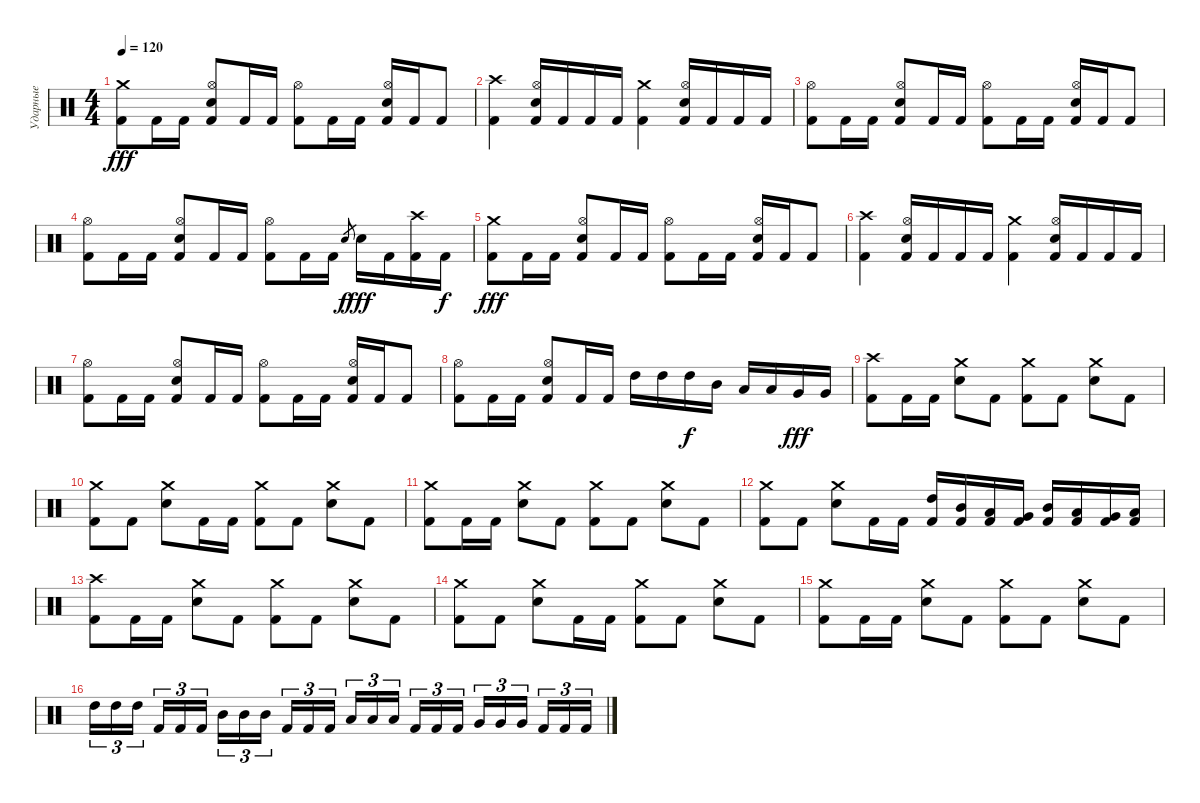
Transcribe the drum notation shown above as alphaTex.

\track ("Ударные" "Ударные") {instrument percussion}
\staff {score}
\articulation defaults
\ts (4 4)
\tempo 120
\clef neutral
\ks c
("Crash medium (hit)" "Kick (hit) 2").8{dy fff} "Kick (hit) 2".16 "Kick (hit) 2".16 ("Hi-Hat (open)" "Electric Snare (hit)" "Kick (hit) 2").8 "Kick (hit) 2".16 "Kick (hit) 2".16 ("Hi-Hat (open)" "Kick (hit) 2").8 "Kick (hit) 2".16 "Kick (hit) 2".16 ("Hi-Hat (open)" "Electric Snare (hit)" "Kick (hit) 2").16 "Kick (hit) 2".16 "Kick (hit) 2".8 |
("Crash high (hit)" "Kick (hit) 2").4 ("Hi-Hat (open)" "Electric Snare (hit)" "Kick (hit) 2").16 "Kick (hit) 2".16 "Kick (hit) 2".16 "Kick (hit) 2".16 ("Crash medium (hit)" "Kick (hit) 2").4 ("Hi-Hat (open)" "Electric Snare (hit)" "Kick (hit) 2").16 "Kick (hit) 2".16 "Kick (hit) 2".16 "Kick (hit) 2".16 |
("Hi-Hat (open)" "Kick (hit) 2").8 "Kick (hit) 2".16 "Kick (hit) 2".16 ("Hi-Hat (open)" "Electric Snare (hit)" "Kick (hit) 2").8 "Kick (hit) 2".16 "Kick (hit) 2".16 ("Hi-Hat (open)" "Kick (hit) 2").8 "Kick (hit) 2".16 "Kick (hit) 2".16 ("Hi-Hat (open)" "Electric Snare (hit)" "Kick (hit) 2").16 "Kick (hit) 2".16 "Kick (hit) 2".8 |
("Hi-Hat (open)" "Kick (hit) 2").8 "Kick (hit) 2".16 "Kick (hit) 2".16 ("Hi-Hat (open)" "Electric Snare (hit)" "Kick (hit) 2").8 "Kick (hit) 2".16 "Kick (hit) 2".16 ("Hi-Hat (open)" "Kick (hit) 2").8 "Kick (hit) 2".16 "Kick (hit) 2".16 "Electric Snare (hit)".8{gr dy f} "Electric Snare (hit)".16{dy fff} "Kick (hit) 2".16 ("Crash high (hit)" "Kick (hit) 2").16 "Kick (hit) 2".16{dy f} |
("Crash medium (hit)" "Kick (hit) 2").8{dy fff} "Kick (hit) 2".16 "Kick (hit) 2".16 ("Hi-Hat (open)" "Electric Snare (hit)" "Kick (hit) 2").8 "Kick (hit) 2".16 "Kick (hit) 2".16 ("Hi-Hat (open)" "Kick (hit) 2").8 "Kick (hit) 2".16 "Kick (hit) 2".16 ("Hi-Hat (open)" "Electric Snare (hit)" "Kick (hit) 2").16 "Kick (hit) 2".16 "Kick (hit) 2".8 |
("Crash high (hit)" "Kick (hit) 2").4 ("Hi-Hat (open)" "Electric Snare (hit)" "Kick (hit) 2").16 "Kick (hit) 2".16 "Kick (hit) 2".16 "Kick (hit) 2".16 ("Crash medium (hit)" "Kick (hit) 2").4 ("Hi-Hat (open)" "Electric Snare (hit)" "Kick (hit) 2").16 "Kick (hit) 2".16 "Kick (hit) 2".16 "Kick (hit) 2".16 |
("Hi-Hat (open)" "Kick (hit) 2").8 "Kick (hit) 2".16 "Kick (hit) 2".16 ("Hi-Hat (open)" "Electric Snare (hit)" "Kick (hit) 2").8 "Kick (hit) 2".16 "Kick (hit) 2".16 ("Hi-Hat (open)" "Kick (hit) 2").8 "Kick (hit) 2".16 "Kick (hit) 2".16 ("Hi-Hat (open)" "Electric Snare (hit)" "Kick (hit) 2").16 "Kick (hit) 2".16 "Kick (hit) 2".8 |
("Hi-Hat (open)" "Kick (hit) 2").8 "Kick (hit) 2".16 "Kick (hit) 2".16 ("Hi-Hat (open)" "Electric Snare (hit)" "Kick (hit) 2").8 "Kick (hit) 2".16 "Kick (hit) 2".16 "High Tom (hit)".16 "High Tom (hit)".16 "High Tom (hit)".16{dy f} "Mid Tom (hit)".16 "Low Tom (hit)".16 "Low Tom (hit)".16 "Very Low Tom (hit)".16{dy fff} "Very Low Tom (hit)".16 |
("Crash high (hit)" "Kick (hit) 2").8 "Kick (hit) 2".16 "Kick (hit) 2".16 ("Crash medium (hit)" "Electric Snare (hit)").8 "Kick (hit) 2".8 ("Crash medium (hit)" "Kick (hit) 2").8 "Kick (hit) 2".8 ("Crash medium (hit)" "Electric Snare (hit)").8 "Kick (hit) 2".8 |
("Crash medium (hit)" "Kick (hit) 2").8 "Kick (hit) 2".8 ("Crash medium (hit)" "Electric Snare (hit)").8 "Kick (hit) 2".16 "Kick (hit) 2".16 ("Crash medium (hit)" "Kick (hit) 2").8 "Kick (hit) 2".8 ("Crash medium (hit)" "Electric Snare (hit)").8 "Kick (hit) 2".8 |
("Crash medium (hit)" "Kick (hit) 2").8 "Kick (hit) 2".16 "Kick (hit) 2".16 ("Crash medium (hit)" "Electric Snare (hit)").8 "Kick (hit) 2".8 ("Crash medium (hit)" "Kick (hit) 2").8 "Kick (hit) 2".8 ("Crash medium (hit)" "Electric Snare (hit)").8 "Kick (hit) 2".8 |
("Crash medium (hit)" "Kick (hit) 2").8 "Kick (hit) 2".8 ("Crash medium (hit)" "Electric Snare (hit)").8 "Kick (hit) 2".16 "Kick (hit) 2".16 ("High Tom (hit)" "Kick (hit) 2").16 ("Mid Tom (hit)" "Kick (hit) 2").16 ("Low Tom (hit)" "Kick (hit) 2").16 ("Very Low Tom (hit)" "Kick (hit) 2").16 ("Mid Tom (hit)" "Kick (hit) 2").16 ("Low Tom (hit)" "Kick (hit) 2").16 ("Very Low Tom (hit)" "Kick (hit) 2").16 ("Low Floor Tom (hit)" "Kick (hit) 2").16 |
("Crash high (hit)" "Kick (hit) 2").8 "Kick (hit) 2".16 "Kick (hit) 2".16 ("Crash medium (hit)" "Electric Snare (hit)").8 "Kick (hit) 2".8 ("Crash medium (hit)" "Kick (hit) 2").8 "Kick (hit) 2".8 ("Crash medium (hit)" "Electric Snare (hit)").8 "Kick (hit) 2".8 |
("Crash medium (hit)" "Kick (hit) 2").8 "Kick (hit) 2".8 ("Crash medium (hit)" "Electric Snare (hit)").8 "Kick (hit) 2".16 "Kick (hit) 2".16 ("Crash medium (hit)" "Kick (hit) 2").8 "Kick (hit) 2".8 ("Crash medium (hit)" "Electric Snare (hit)").8 "Kick (hit) 2".8 |
("Crash medium (hit)" "Kick (hit) 2").8 "Kick (hit) 2".16 "Kick (hit) 2".16 ("Crash medium (hit)" "Electric Snare (hit)").8 "Kick (hit) 2".8 ("Crash medium (hit)" "Kick (hit) 2").8 "Kick (hit) 2".8 ("Crash medium (hit)" "Electric Snare (hit)").8 "Kick (hit) 2".8 |
"High Tom (hit)".16{tu (3 2)} "High Tom (hit)".16{tu (3 2)} "High Tom (hit)".16{tu (3 2) beam splitsecondary} "Kick (hit) 2".16{tu (3 2)} "Kick (hit) 2".16{tu (3 2)} "Kick (hit) 2".16{tu (3 2)} "Mid Tom (hit)".16{tu (3 2)} "Mid Tom (hit)".16{tu (3 2)} "Mid Tom (hit)".16{tu (3 2) beam splitsecondary} "Kick (hit) 2".16{tu (3 2)} "Kick (hit) 2".16{tu (3 2)} "Kick (hit) 2".16{tu (3 2)} "Low Tom (hit)".16{tu (3 2)} "Low Tom (hit)".16{tu (3 2)} "Low Tom (hit)".16{tu (3 2) beam splitsecondary} "Kick (hit) 2".16{tu (3 2)} "Kick (hit) 2".16{tu (3 2)} "Kick (hit) 2".16{tu (3 2)} "Very Low Tom (hit)".16{tu (3 2)} "Very Low Tom (hit)".16{tu (3 2)} "Very Low Tom (hit)".16{tu (3 2) beam splitsecondary} "Kick (hit) 2".16{tu (3 2)} "Kick (hit) 2".16{tu (3 2)} "Kick (hit) 2".16{tu (3 2)}
